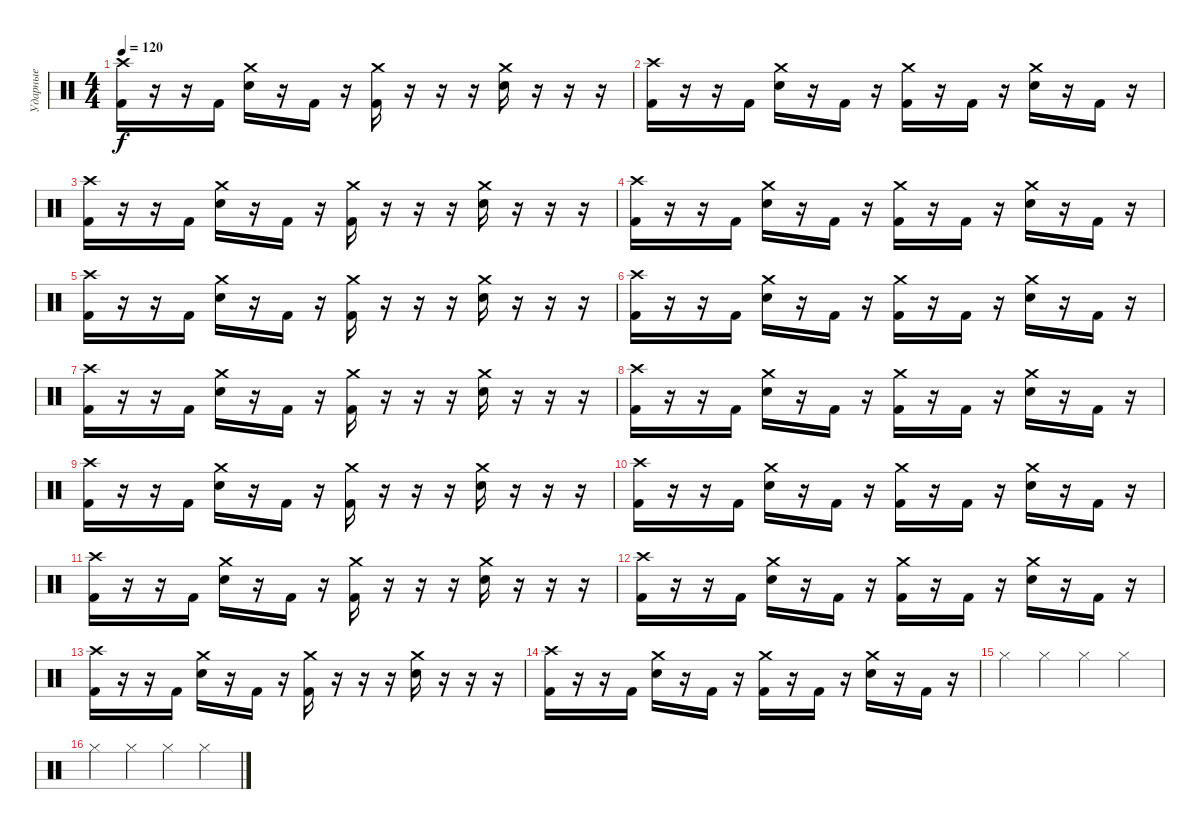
\track ("Ударные" "Ударные") {instrument percussion}
\staff
\articulation defaults
\ts (4 4)
\tempo 120
\clef neutral
\ks c
("Crash high (hit)" "Kick (hit) 2").16{dy f} r.16 r.16 "Kick (hit) 2".16 ("Crash medium (hit)" "Electric Snare (hit)").16 r.16 "Kick (hit) 2".16 r.16 ("Crash medium (hit)" "Kick (hit) 2").16 r.16 r.16 r.16 ("Crash medium (hit)" "Electric Snare (hit)").16 r.16 r.16 r.16 |
("Crash high (hit)" "Kick (hit) 2").16 r.16 r.16 "Kick (hit) 2".16 ("Crash medium (hit)" "Electric Snare (hit)").16 r.16 "Kick (hit) 2".16 r.16 ("Crash medium (hit)" "Kick (hit) 2").16 r.16 "Kick (hit) 2".16 r.16 ("Crash medium (hit)" "Electric Snare (hit)").16 r.16 "Kick (hit) 2".16 r.16 |
("Crash high (hit)" "Kick (hit) 2").16 r.16 r.16 "Kick (hit) 2".16 ("Crash medium (hit)" "Electric Snare (hit)").16 r.16 "Kick (hit) 2".16 r.16 ("Crash medium (hit)" "Kick (hit) 2").16 r.16 r.16 r.16 ("Crash medium (hit)" "Electric Snare (hit)").16 r.16 r.16 r.16 |
("Crash high (hit)" "Kick (hit) 2").16 r.16 r.16 "Kick (hit) 2".16 ("Crash medium (hit)" "Electric Snare (hit)").16 r.16 "Kick (hit) 2".16 r.16 ("Crash medium (hit)" "Kick (hit) 2").16 r.16 "Kick (hit) 2".16 r.16 ("Crash medium (hit)" "Electric Snare (hit)").16 r.16 "Kick (hit) 2".16 r.16 |
("Crash high (hit)" "Kick (hit) 2").16 r.16 r.16 "Kick (hit) 2".16 ("Crash medium (hit)" "Electric Snare (hit)").16 r.16 "Kick (hit) 2".16 r.16 ("Crash medium (hit)" "Kick (hit) 2").16 r.16 r.16 r.16 ("Crash medium (hit)" "Electric Snare (hit)").16 r.16 r.16 r.16 |
("Crash high (hit)" "Kick (hit) 2").16 r.16 r.16 "Kick (hit) 2".16 ("Crash medium (hit)" "Electric Snare (hit)").16 r.16 "Kick (hit) 2".16 r.16 ("Crash medium (hit)" "Kick (hit) 2").16 r.16 "Kick (hit) 2".16 r.16 ("Crash medium (hit)" "Electric Snare (hit)").16 r.16 "Kick (hit) 2".16 r.16 |
("Crash high (hit)" "Kick (hit) 2").16 r.16 r.16 "Kick (hit) 2".16 ("Crash medium (hit)" "Electric Snare (hit)").16 r.16 "Kick (hit) 2".16 r.16 ("Crash medium (hit)" "Kick (hit) 2").16 r.16 r.16 r.16 ("Crash medium (hit)" "Electric Snare (hit)").16 r.16 r.16 r.16 |
("Crash high (hit)" "Kick (hit) 2").16 r.16 r.16 "Kick (hit) 2".16 ("Crash medium (hit)" "Electric Snare (hit)").16 r.16 "Kick (hit) 2".16 r.16 ("Crash medium (hit)" "Kick (hit) 2").16 r.16 "Kick (hit) 2".16 r.16 ("Crash medium (hit)" "Electric Snare (hit)").16 r.16 "Kick (hit) 2".16 r.16 |
("Crash high (hit)" "Kick (hit) 2").16 r.16 r.16 "Kick (hit) 2".16 ("Crash medium (hit)" "Electric Snare (hit)").16 r.16 "Kick (hit) 2".16 r.16 ("Crash medium (hit)" "Kick (hit) 2").16 r.16 r.16 r.16 ("Crash medium (hit)" "Electric Snare (hit)").16 r.16 r.16 r.16 |
("Crash high (hit)" "Kick (hit) 2").16 r.16 r.16 "Kick (hit) 2".16 ("Crash medium (hit)" "Electric Snare (hit)").16 r.16 "Kick (hit) 2".16 r.16 ("Crash medium (hit)" "Kick (hit) 2").16 r.16 "Kick (hit) 2".16 r.16 ("Crash medium (hit)" "Electric Snare (hit)").16 r.16 "Kick (hit) 2".16 r.16 |
("Crash high (hit)" "Kick (hit) 2").16 r.16 r.16 "Kick (hit) 2".16 ("Crash medium (hit)" "Electric Snare (hit)").16 r.16 "Kick (hit) 2".16 r.16 ("Crash medium (hit)" "Kick (hit) 2").16 r.16 r.16 r.16 ("Crash medium (hit)" "Electric Snare (hit)").16 r.16 r.16 r.16 |
("Crash high (hit)" "Kick (hit) 2").16 r.16 r.16 "Kick (hit) 2".16 ("Crash medium (hit)" "Electric Snare (hit)").16 r.16 "Kick (hit) 2".16 r.16 ("Crash medium (hit)" "Kick (hit) 2").16 r.16 "Kick (hit) 2".16 r.16 ("Crash medium (hit)" "Electric Snare (hit)").16 r.16 "Kick (hit) 2".16 r.16 |
("Crash high (hit)" "Kick (hit) 2").16 r.16 r.16 "Kick (hit) 2".16 ("Crash medium (hit)" "Electric Snare (hit)").16 r.16 "Kick (hit) 2".16 r.16 ("Crash medium (hit)" "Kick (hit) 2").16 r.16 r.16 r.16 ("Crash medium (hit)" "Electric Snare (hit)").16 r.16 r.16 r.16 |
("Crash high (hit)" "Kick (hit) 2").16 r.16 r.16 "Kick (hit) 2".16 ("Crash medium (hit)" "Electric Snare (hit)").16 r.16 "Kick (hit) 2".16 r.16 ("Crash medium (hit)" "Kick (hit) 2").16 r.16 "Kick (hit) 2".16 r.16 ("Crash medium (hit)" "Electric Snare (hit)").16 r.16 "Kick (hit) 2".16 r.16 |
"Hi-Hat (closed)".4 "Hi-Hat (closed)".4 "Hi-Hat (closed)".4 "Hi-Hat (closed)".4 |
"Hi-Hat (closed)".4 "Hi-Hat (closed)".4 "Hi-Hat (closed)".4 "Hi-Hat (closed)".4
